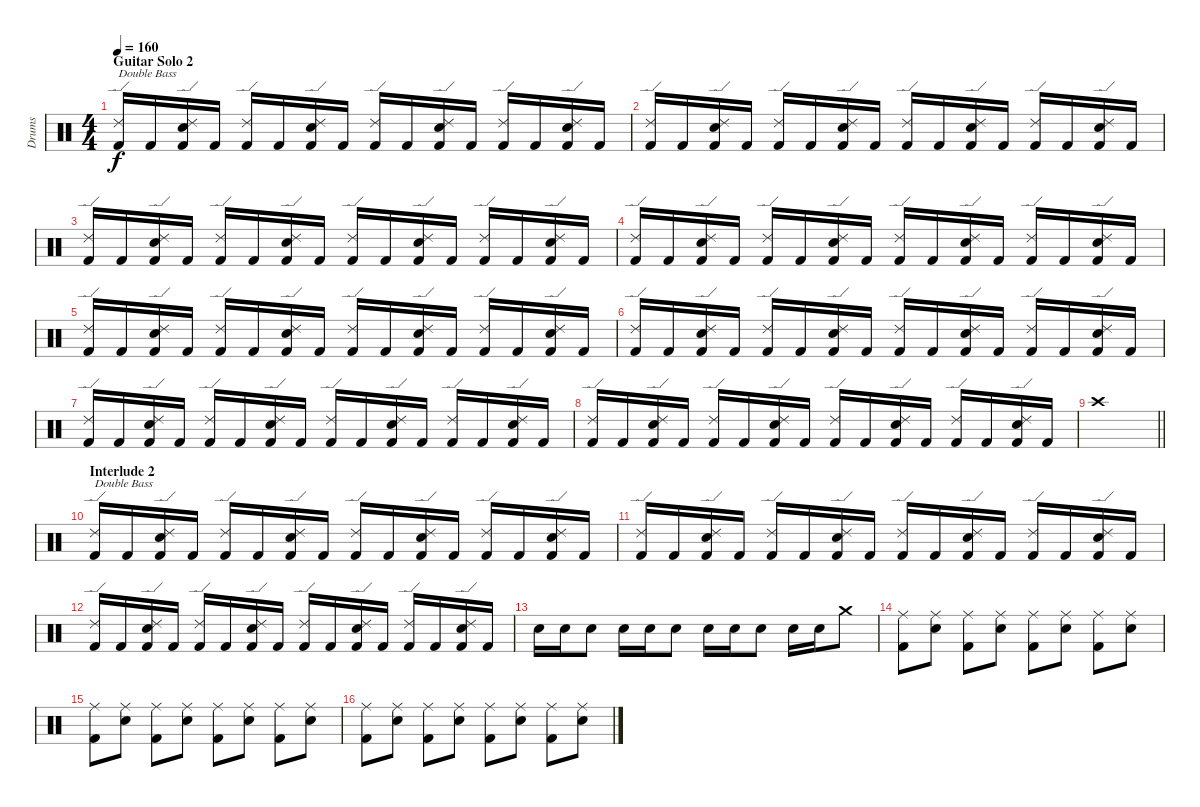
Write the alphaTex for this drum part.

\track ("Drums" "Drums") {instrument percussion}
\staff {score}
\articulation defaults
\ts (4 4)
\section ("" "Guitar Solo 2")
\tempo 160
\clef neutral
\ks c
("Ride (edge) 2" "Kick (hit) 2").16{txt "Double Bass" dy f} "Kick (hit) 2".16 ("Ride (edge) 2" "Electric Snare (hit)" "Kick (hit) 2").16 "Kick (hit) 2".16 ("Ride (edge) 2" "Kick (hit) 2").16 "Kick (hit) 2".16 ("Ride (edge) 2" "Electric Snare (hit)" "Kick (hit) 2").16 "Kick (hit) 2".16 ("Ride (edge) 2" "Kick (hit) 2").16 "Kick (hit) 2".16 ("Ride (edge) 2" "Electric Snare (hit)" "Kick (hit) 2").16 "Kick (hit) 2".16 ("Ride (edge) 2" "Kick (hit) 2").16 "Kick (hit) 2".16 ("Ride (edge) 2" "Electric Snare (hit)" "Kick (hit) 2").16 "Kick (hit) 2".16 |
("Ride (edge) 2" "Kick (hit) 2").16 "Kick (hit) 2".16 ("Ride (edge) 2" "Electric Snare (hit)" "Kick (hit) 2").16 "Kick (hit) 2".16 ("Ride (edge) 2" "Kick (hit) 2").16 "Kick (hit) 2".16 ("Ride (edge) 2" "Electric Snare (hit)" "Kick (hit) 2").16 "Kick (hit) 2".16 ("Ride (edge) 2" "Kick (hit) 2").16 "Kick (hit) 2".16 ("Ride (edge) 2" "Electric Snare (hit)" "Kick (hit) 2").16 "Kick (hit) 2".16 ("Ride (edge) 2" "Kick (hit) 2").16 "Kick (hit) 2".16 ("Ride (edge) 2" "Electric Snare (hit)" "Kick (hit) 2").16 "Kick (hit) 2".16 |
("Ride (edge) 2" "Kick (hit) 2").16 "Kick (hit) 2".16 ("Ride (edge) 2" "Electric Snare (hit)" "Kick (hit) 2").16 "Kick (hit) 2".16 ("Ride (edge) 2" "Kick (hit) 2").16 "Kick (hit) 2".16 ("Ride (edge) 2" "Electric Snare (hit)" "Kick (hit) 2").16 "Kick (hit) 2".16 ("Ride (edge) 2" "Kick (hit) 2").16 "Kick (hit) 2".16 ("Ride (edge) 2" "Electric Snare (hit)" "Kick (hit) 2").16 "Kick (hit) 2".16 ("Ride (edge) 2" "Kick (hit) 2").16 "Kick (hit) 2".16 ("Ride (edge) 2" "Electric Snare (hit)" "Kick (hit) 2").16 "Kick (hit) 2".16 |
("Ride (edge) 2" "Kick (hit) 2").16 "Kick (hit) 2".16 ("Ride (edge) 2" "Electric Snare (hit)" "Kick (hit) 2").16 "Kick (hit) 2".16 ("Ride (edge) 2" "Kick (hit) 2").16 "Kick (hit) 2".16 ("Ride (edge) 2" "Electric Snare (hit)" "Kick (hit) 2").16 "Kick (hit) 2".16 ("Ride (edge) 2" "Kick (hit) 2").16 "Kick (hit) 2".16 ("Ride (edge) 2" "Electric Snare (hit)" "Kick (hit) 2").16 "Kick (hit) 2".16 ("Ride (edge) 2" "Kick (hit) 2").16 "Kick (hit) 2".16 ("Ride (edge) 2" "Electric Snare (hit)" "Kick (hit) 2").16 "Kick (hit) 2".16 |
("Ride (edge) 2" "Kick (hit) 2").16 "Kick (hit) 2".16 ("Ride (edge) 2" "Electric Snare (hit)" "Kick (hit) 2").16 "Kick (hit) 2".16 ("Ride (edge) 2" "Kick (hit) 2").16 "Kick (hit) 2".16 ("Ride (edge) 2" "Electric Snare (hit)" "Kick (hit) 2").16 "Kick (hit) 2".16 ("Ride (edge) 2" "Kick (hit) 2").16 "Kick (hit) 2".16 ("Ride (edge) 2" "Electric Snare (hit)" "Kick (hit) 2").16 "Kick (hit) 2".16 ("Ride (edge) 2" "Kick (hit) 2").16 "Kick (hit) 2".16 ("Ride (edge) 2" "Electric Snare (hit)" "Kick (hit) 2").16 "Kick (hit) 2".16 |
("Ride (edge) 2" "Kick (hit) 2").16 "Kick (hit) 2".16 ("Ride (edge) 2" "Electric Snare (hit)" "Kick (hit) 2").16 "Kick (hit) 2".16 ("Ride (edge) 2" "Kick (hit) 2").16 "Kick (hit) 2".16 ("Ride (edge) 2" "Electric Snare (hit)" "Kick (hit) 2").16 "Kick (hit) 2".16 ("Ride (edge) 2" "Kick (hit) 2").16 "Kick (hit) 2".16 ("Ride (edge) 2" "Electric Snare (hit)" "Kick (hit) 2").16 "Kick (hit) 2".16 ("Ride (edge) 2" "Kick (hit) 2").16 "Kick (hit) 2".16 ("Ride (edge) 2" "Electric Snare (hit)" "Kick (hit) 2").16 "Kick (hit) 2".16 |
("Ride (edge) 2" "Kick (hit) 2").16 "Kick (hit) 2".16 ("Ride (edge) 2" "Electric Snare (hit)" "Kick (hit) 2").16 "Kick (hit) 2".16 ("Ride (edge) 2" "Kick (hit) 2").16 "Kick (hit) 2".16 ("Ride (edge) 2" "Electric Snare (hit)" "Kick (hit) 2").16 "Kick (hit) 2".16 ("Ride (edge) 2" "Kick (hit) 2").16 "Kick (hit) 2".16 ("Ride (edge) 2" "Electric Snare (hit)" "Kick (hit) 2").16 "Kick (hit) 2".16 ("Ride (edge) 2" "Kick (hit) 2").16 "Kick (hit) 2".16 ("Ride (edge) 2" "Electric Snare (hit)" "Kick (hit) 2").16 "Kick (hit) 2".16 |
("Ride (edge) 2" "Kick (hit) 2").16 "Kick (hit) 2".16 ("Ride (edge) 2" "Electric Snare (hit)" "Kick (hit) 2").16 "Kick (hit) 2".16 ("Ride (edge) 2" "Kick (hit) 2").16 "Kick (hit) 2".16 ("Ride (edge) 2" "Electric Snare (hit)" "Kick (hit) 2").16 "Kick (hit) 2".16 ("Ride (edge) 2" "Kick (hit) 2").16 "Kick (hit) 2".16 ("Ride (edge) 2" "Electric Snare (hit)" "Kick (hit) 2").16 "Kick (hit) 2".16 ("Ride (edge) 2" "Kick (hit) 2").16 "Kick (hit) 2".16 ("Ride (edge) 2" "Electric Snare (hit)" "Kick (hit) 2").16 "Kick (hit) 2".16 |
\barLineRight lightlight "Crash high (hit)".1
|
\section ("" "Interlude 2")
("Ride (edge) 2" "Kick (hit) 2").16{txt "Double Bass"} "Kick (hit) 2".16 ("Ride (edge) 2" "Electric Snare (hit)" "Kick (hit) 2").16 "Kick (hit) 2".16 ("Ride (edge) 2" "Kick (hit) 2").16 "Kick (hit) 2".16 ("Ride (edge) 2" "Electric Snare (hit)" "Kick (hit) 2").16 "Kick (hit) 2".16 ("Ride (edge) 2" "Kick (hit) 2").16 "Kick (hit) 2".16 ("Ride (edge) 2" "Electric Snare (hit)" "Kick (hit) 2").16 "Kick (hit) 2".16 ("Ride (edge) 2" "Kick (hit) 2").16 "Kick (hit) 2".16 ("Ride (edge) 2" "Electric Snare (hit)" "Kick (hit) 2").16 "Kick (hit) 2".16 |
("Ride (edge) 2" "Kick (hit) 2").16 "Kick (hit) 2".16 ("Ride (edge) 2" "Electric Snare (hit)" "Kick (hit) 2").16 "Kick (hit) 2".16 ("Ride (edge) 2" "Kick (hit) 2").16 "Kick (hit) 2".16 ("Ride (edge) 2" "Electric Snare (hit)" "Kick (hit) 2").16 "Kick (hit) 2".16 ("Ride (edge) 2" "Kick (hit) 2").16 "Kick (hit) 2".16 ("Ride (edge) 2" "Electric Snare (hit)" "Kick (hit) 2").16 "Kick (hit) 2".16 ("Ride (edge) 2" "Kick (hit) 2").16 "Kick (hit) 2".16 ("Ride (edge) 2" "Electric Snare (hit)" "Kick (hit) 2").16 "Kick (hit) 2".16 |
("Ride (edge) 2" "Kick (hit) 2").16 "Kick (hit) 2".16 ("Ride (edge) 2" "Electric Snare (hit)" "Kick (hit) 2").16 "Kick (hit) 2".16 ("Ride (edge) 2" "Kick (hit) 2").16 "Kick (hit) 2".16 ("Ride (edge) 2" "Electric Snare (hit)" "Kick (hit) 2").16 "Kick (hit) 2".16 ("Ride (edge) 2" "Kick (hit) 2").16 "Kick (hit) 2".16 ("Ride (edge) 2" "Electric Snare (hit)" "Kick (hit) 2").16 "Kick (hit) 2".16 ("Ride (edge) 2" "Kick (hit) 2").16 "Kick (hit) 2".16 ("Ride (edge) 2" "Electric Snare (hit)" "Kick (hit) 2").16 "Kick (hit) 2".16 |
"Electric Snare (hit)".16 "Electric Snare (hit)".16 "Electric Snare (hit)".8 "Electric Snare (hit)".16 "Electric Snare (hit)".16 "Electric Snare (hit)".8 "Electric Snare (hit)".16 "Electric Snare (hit)".16 "Electric Snare (hit)".8 "Electric Snare (hit)".16 "Electric Snare (hit)".16 "Crash medium (hit)".8 |
("Ride (middle)" "Kick (hit) 2").8 ("Ride (middle)" "Electric Snare (hit)").8 ("Ride (middle)" "Kick (hit) 2").8 ("Ride (middle)" "Electric Snare (hit)").8 ("Ride (middle)" "Kick (hit) 2").8 ("Ride (middle)" "Electric Snare (hit)").8 ("Ride (middle)" "Kick (hit) 2").8 ("Ride (middle)" "Electric Snare (hit)").8 |
("Ride (middle)" "Kick (hit) 2").8 ("Ride (middle)" "Electric Snare (hit)").8 ("Ride (middle)" "Kick (hit) 2").8 ("Ride (middle)" "Electric Snare (hit)").8 ("Ride (middle)" "Kick (hit) 2").8 ("Ride (middle)" "Electric Snare (hit)").8 ("Ride (middle)" "Kick (hit) 2").8 ("Ride (middle)" "Electric Snare (hit)").8 |
("Ride (middle)" "Kick (hit) 2").8 ("Ride (middle)" "Electric Snare (hit)").8 ("Ride (middle)" "Kick (hit) 2").8 ("Ride (middle)" "Electric Snare (hit)").8 ("Ride (middle)" "Kick (hit) 2").8 ("Ride (middle)" "Electric Snare (hit)").8 ("Ride (middle)" "Kick (hit) 2").8 ("Ride (middle)" "Electric Snare (hit)").8
